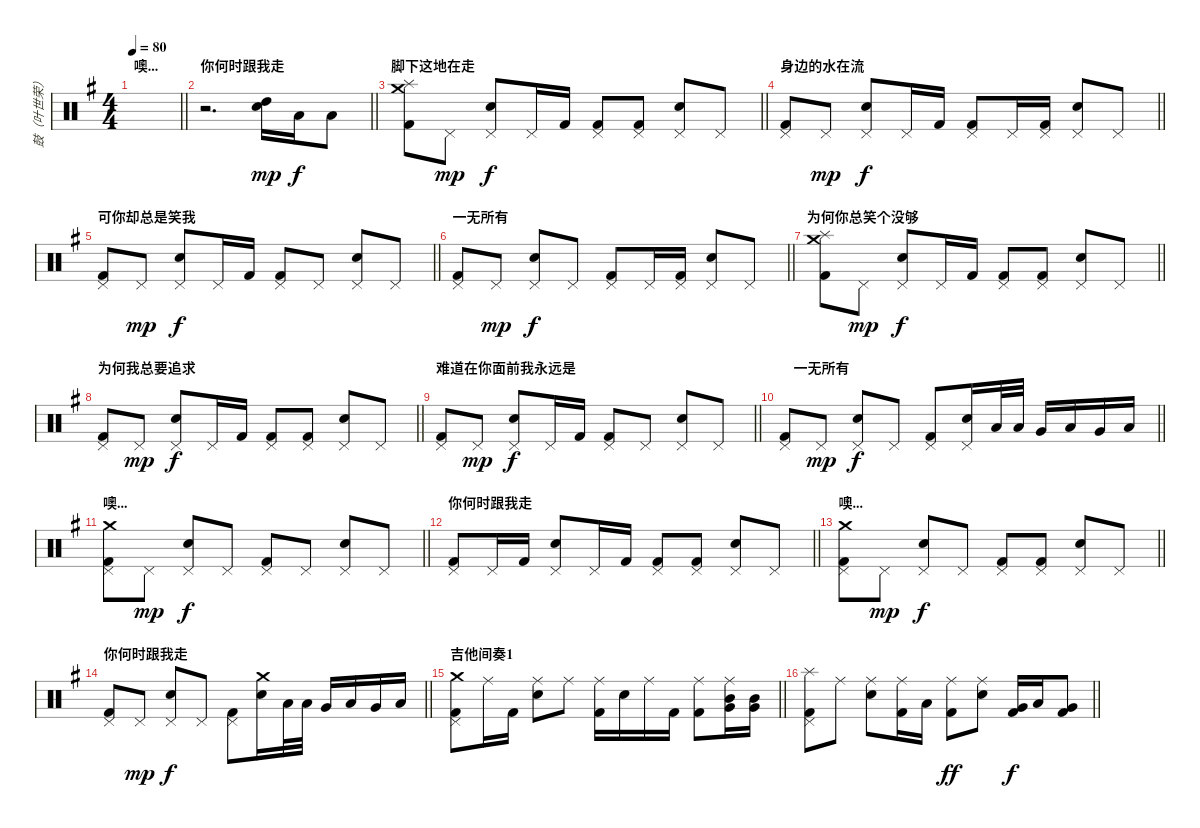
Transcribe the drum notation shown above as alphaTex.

\track ("鼓（叶世荣）" "鼓（叶世荣）") {instrument percussion}
\staff {score}
\articulation defaults
\ts (4 4)
\section ("" "噢...")
\tempo 80
\clef neutral
\barLineRight lightlight
\ks g
|
\section ("" "你何时跟我走")
\barLineRight lightlight
r.2{d} ("High Tom (hit)" "Electric Snare (hit)").16{dy mp} "Low Tom (hit)".16{dy f} "Low Tom (hit)".8 |
\section ("" "脚下这地在走")
\barLineRight lightlight
("Crash medium (hit)" "Splash (hit)" "Kick (hit) 2").8 "Pedal Hi-Hat (hit)".8{dy mp} ("Pedal Hi-Hat (hit)" "Snare (hit) 2").8{dy f} "Pedal Hi-Hat (hit)".16 "Kick (hit) 2".16 ("Pedal Hi-Hat (hit)" "Kick (hit) 2").8 ("Pedal Hi-Hat (hit)" "Kick (hit) 2").8 ("Pedal Hi-Hat (hit)" "Snare (hit) 2").8 "Pedal Hi-Hat (hit)".8 |
\section ("" "身边的水在流")
\barLineRight lightlight
("Pedal Hi-Hat (hit)" "Kick (hit) 2").8 "Pedal Hi-Hat (hit)".8{dy mp} ("Pedal Hi-Hat (hit)" "Snare (hit) 2").8{dy f} "Pedal Hi-Hat (hit)".16 "Kick (hit) 2".16 ("Pedal Hi-Hat (hit)" "Kick (hit) 2").8 "Pedal Hi-Hat (hit)".16 ("Pedal Hi-Hat (hit)" "Kick (hit) 2").16 ("Pedal Hi-Hat (hit)" "Snare (hit) 2").8 "Pedal Hi-Hat (hit)".8 |
\section ("" "可你却总是笑我")
\barLineRight lightlight
("Pedal Hi-Hat (hit)" "Kick (hit) 2").8 "Pedal Hi-Hat (hit)".8{dy mp} ("Pedal Hi-Hat (hit)" "Snare (hit) 2").8{dy f} "Pedal Hi-Hat (hit)".16 "Kick (hit) 2".16 ("Pedal Hi-Hat (hit)" "Kick (hit) 2").8 "Pedal Hi-Hat (hit)".8 ("Pedal Hi-Hat (hit)" "Snare (hit) 2").8 "Pedal Hi-Hat (hit)".8 |
\section ("" "一无所有")
\barLineRight lightlight
("Pedal Hi-Hat (hit)" "Kick (hit) 2").8 "Pedal Hi-Hat (hit)".8{dy mp} ("Pedal Hi-Hat (hit)" "Snare (hit) 2").8{dy f} "Pedal Hi-Hat (hit)".8 ("Pedal Hi-Hat (hit)" "Kick (hit) 2").8 "Pedal Hi-Hat (hit)".16 ("Pedal Hi-Hat (hit)" "Kick (hit) 2").16 ("Pedal Hi-Hat (hit)" "Snare (hit) 2").8 "Pedal Hi-Hat (hit)".8 |
\section ("" "为何你总笑个没够")
\barLineRight lightlight
("Crash medium (hit)" "Splash (hit)" "Kick (hit) 2").8 "Pedal Hi-Hat (hit)".8{dy mp} ("Pedal Hi-Hat (hit)" "Snare (hit) 2").8{dy f} "Pedal Hi-Hat (hit)".16 "Kick (hit) 2".16 ("Pedal Hi-Hat (hit)" "Kick (hit) 2").8 ("Pedal Hi-Hat (hit)" "Kick (hit) 2").8 ("Pedal Hi-Hat (hit)" "Snare (hit) 2").8 "Pedal Hi-Hat (hit)".8 |
\section ("" "为何我总要追求")
\barLineRight lightlight
("Pedal Hi-Hat (hit)" "Kick (hit) 2").8 "Pedal Hi-Hat (hit)".8{dy mp} ("Pedal Hi-Hat (hit)" "Snare (hit) 2").8{dy f} "Pedal Hi-Hat (hit)".16 "Kick (hit) 2".16 ("Pedal Hi-Hat (hit)" "Kick (hit) 2").8 ("Pedal Hi-Hat (hit)" "Kick (hit) 2").8 ("Pedal Hi-Hat (hit)" "Snare (hit) 2").8 "Pedal Hi-Hat (hit)".8 |
\section ("" "难道在你面前我永远是")
\barLineRight lightlight
("Pedal Hi-Hat (hit)" "Kick (hit) 2").8 "Pedal Hi-Hat (hit)".8{dy mp} ("Pedal Hi-Hat (hit)" "Snare (hit) 2").8{dy f} "Pedal Hi-Hat (hit)".16 "Kick (hit) 2".16 ("Pedal Hi-Hat (hit)" "Kick (hit) 2").8 "Pedal Hi-Hat (hit)".8 ("Pedal Hi-Hat (hit)" "Snare (hit) 2").8 "Pedal Hi-Hat (hit)".8 |
\section ("" "    一无所有")
\barLineRight lightlight
("Pedal Hi-Hat (hit)" "Kick (hit) 2").8 "Pedal Hi-Hat (hit)".8{dy mp} ("Pedal Hi-Hat (hit)" "Snare (hit) 2").8{dy f} "Pedal Hi-Hat (hit)".8 ("Pedal Hi-Hat (hit)" "Kick (hit) 2").8 ("Pedal Hi-Hat (hit)" "Snare (hit) 2").16 "Low Tom (hit)".32 "Low Tom (hit)".32 "Very Low Tom (hit)".16 "Low Tom (hit)".16 "Very Low Tom (hit)".16 "Low Tom (hit)".16 |
\section ("" "噢...")
\barLineRight lightlight
("Crash medium (hit)" "Pedal Hi-Hat (hit)" "Kick (hit) 2").8 "Pedal Hi-Hat (hit)".8{dy mp} ("Pedal Hi-Hat (hit)" "Snare (hit) 2").8{dy f} "Pedal Hi-Hat (hit)".8 ("Pedal Hi-Hat (hit)" "Kick (hit) 2").8 "Pedal Hi-Hat (hit)".8 ("Pedal Hi-Hat (hit)" "Snare (hit) 2").8 "Pedal Hi-Hat (hit)".8 |
\section ("" "你何时跟我走")
\barLineRight lightlight
("Pedal Hi-Hat (hit)" "Kick (hit) 2").8 "Pedal Hi-Hat (hit)".16 "Kick (hit) 2".16 ("Pedal Hi-Hat (hit)" "Snare (hit) 2").8 "Pedal Hi-Hat (hit)".16 "Kick (hit) 2".16 ("Pedal Hi-Hat (hit)" "Kick (hit) 2").8 ("Pedal Hi-Hat (hit)" "Kick (hit) 2").8 ("Pedal Hi-Hat (hit)" "Snare (hit) 2").8 "Pedal Hi-Hat (hit)".8 |
\section ("" "噢...")
\barLineRight lightlight
("Crash medium (hit)" "Pedal Hi-Hat (hit)" "Kick (hit) 2").8 "Pedal Hi-Hat (hit)".8{dy mp} ("Pedal Hi-Hat (hit)" "Snare (hit) 2").8{dy f} "Pedal Hi-Hat (hit)".8 ("Pedal Hi-Hat (hit)" "Kick (hit) 2").8 ("Pedal Hi-Hat (hit)" "Kick (hit) 2").8 ("Pedal Hi-Hat (hit)" "Snare (hit) 2").8 "Pedal Hi-Hat (hit)".8 |
\section ("" "你何时跟我走")
\barLineRight lightlight
("Pedal Hi-Hat (hit)" "Kick (hit) 2").8 "Pedal Hi-Hat (hit)".8{dy mp} ("Pedal Hi-Hat (hit)" "Snare (hit) 2").8{dy f} "Pedal Hi-Hat (hit)".8 ("Pedal Hi-Hat (hit)" "Kick (hit) 2").8 ("Crash medium (hit)" "Snare (hit) 2").16 "Low Tom (hit)".32 "Low Tom (hit)".32 "Very Low Tom (hit)".16 "Low Tom (hit)".16 "Very Low Tom (hit)".16 "Low Tom (hit)".16 |
\section ("" "吉他间奏1")
\barLineRight lightlight
("Crash medium (hit)" "Pedal Hi-Hat (hit)" "Kick (hit) 2").8 "Ride (middle)".16 "Kick (hit) 2".16 ("Ride (middle)" "Snare (hit) 2").8 "Ride (middle)".8 ("Ride (middle)" "Kick (hit) 2").16 "Snare (hit) 2".16 "Ride (middle)".16 "Kick (hit) 2".16 ("Ride (middle)" "Kick (hit) 2").8 ("Ride (middle)" "Mid Tom (hit)" "Very Low Tom (hit)").16 ("Mid Tom (hit)" "Very Low Tom (hit)").16 |
\barLineRight lightlight
("Splash (hit)" "Pedal Hi-Hat (hit)" "Kick (hit) 2").8 "Ride (middle)".8 ("Ride (middle)" "Snare (hit) 2").8 ("Ride (middle)" "Kick (hit) 2").16 "Low Tom (hit)".16 ("Ride (middle)" "Kick (hit) 2").8{dy ff} ("Ride (middle)" "Snare (hit) 2").8 ("Very Low Tom (hit)" "Kick (hit) 2").16{dy f} "Low Tom (hit)".16 ("Very Low Tom (hit)" "Kick (hit) 2").8
